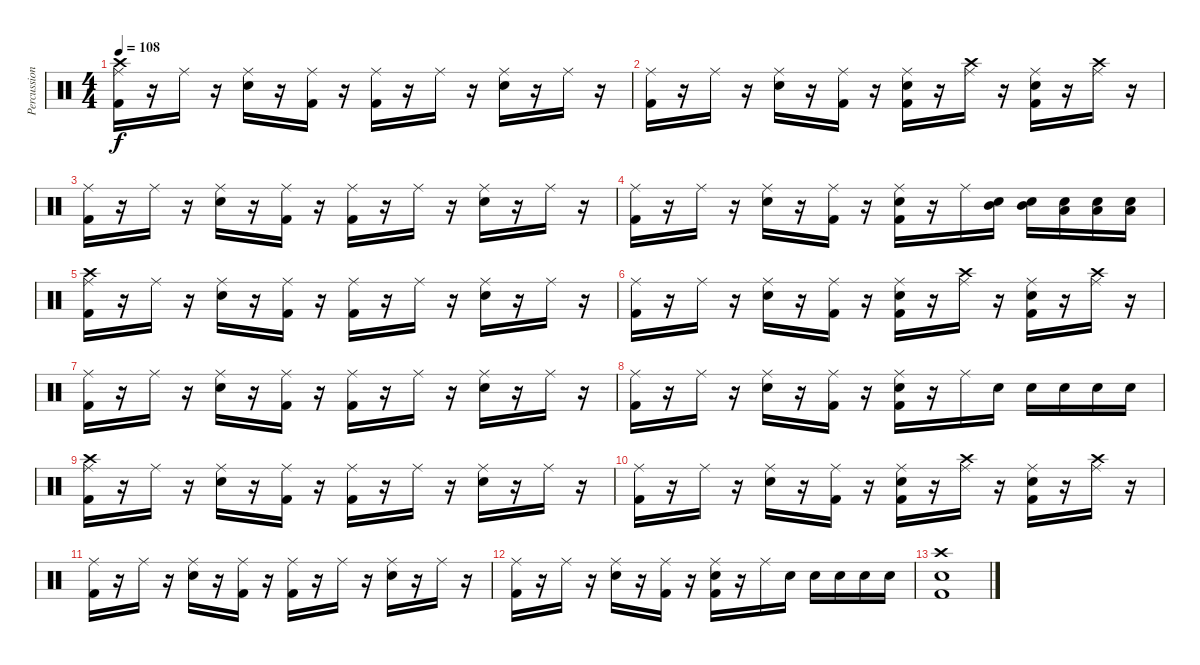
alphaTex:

\track ("Percussion" "Percussion") {instrument percussion}
\staff {score}
\articulation defaults
\ts (4 4)
\tempo 108
\clef neutral
\ks c
("Crash high (hit)" "Ride (middle)" "Kick (hit) 2").16{dy f} r.16 "Ride (middle)".16 r.16 ("Snare (hit) 2" "Ride (middle)").16 r.16 ("Ride (middle)" "Kick (hit) 2").16 r.16 ("Ride (middle)" "Kick (hit) 2").16 r.16 "Ride (middle)".16 r.16 ("Snare (hit) 2" "Ride (middle)").16 r.16 "Ride (middle)".16 r.16 |
("Ride (middle)" "Kick (hit) 2").16 r.16 "Ride (middle)".16 r.16 ("Snare (hit) 2" "Ride (middle)").16 r.16 ("Ride (middle)" "Kick (hit) 2").16 r.16 ("Snare (hit) 2" "Ride (middle)" "Kick (hit) 2").16 r.16 ("Crash high (hit)" "Ride (middle)").16 r.16 ("Snare (hit) 2" "Ride (middle)" "Kick (hit) 2").16 r.16 ("Crash high (hit)" "Ride (middle)").16 r.16 |
("Ride (middle)" "Kick (hit) 2").16 r.16 "Ride (middle)".16 r.16 ("Snare (hit) 2" "Ride (middle)").16 r.16 ("Ride (middle)" "Kick (hit) 2").16 r.16 ("Ride (middle)" "Kick (hit) 2").16 r.16 "Ride (middle)".16 r.16 ("Snare (hit) 2" "Ride (middle)").16 r.16 "Ride (middle)".16 r.16 |
("Ride (middle)" "Kick (hit) 2").16 r.16 "Ride (middle)".16 r.16 ("Snare (hit) 2" "Ride (middle)").16 r.16 ("Ride (middle)" "Kick (hit) 2").16 r.16 ("Snare (hit) 2" "Ride (middle)" "Kick (hit) 2").16 r.16 "Ride (middle)".16 ("Snare (hit) 2" "Mid Tom (hit)").16 ("Snare (hit) 2" "Mid Tom (hit)").16 ("Snare (hit) 2" "Low Tom (hit)").16 ("Snare (hit) 2" "Low Tom (hit)").16 ("Snare (hit) 2" "Low Floor Tom (hit)").16 |
("Crash high (hit)" "Ride (middle)" "Kick (hit) 2").16 r.16 "Ride (middle)".16 r.16 ("Snare (hit) 2" "Ride (middle)").16 r.16 ("Ride (middle)" "Kick (hit) 2").16 r.16 ("Ride (middle)" "Kick (hit) 2").16 r.16 "Ride (middle)".16 r.16 ("Snare (hit) 2" "Ride (middle)").16 r.16 "Ride (middle)".16 r.16 |
("Ride (middle)" "Kick (hit) 2").16 r.16 "Ride (middle)".16 r.16 ("Snare (hit) 2" "Ride (middle)").16 r.16 ("Ride (middle)" "Kick (hit) 2").16 r.16 ("Snare (hit) 2" "Ride (middle)" "Kick (hit) 2").16 r.16 ("Crash high (hit)" "Ride (middle)").16 r.16 ("Snare (hit) 2" "Ride (middle)" "Kick (hit) 2").16 r.16 ("Crash high (hit)" "Ride (middle)").16 r.16 |
("Ride (middle)" "Kick (hit) 2").16 r.16 "Ride (middle)".16 r.16 ("Snare (hit) 2" "Ride (middle)").16 r.16 ("Ride (middle)" "Kick (hit) 2").16 r.16 ("Ride (middle)" "Kick (hit) 2").16 r.16 "Ride (middle)".16 r.16 ("Snare (hit) 2" "Ride (middle)").16 r.16 "Ride (middle)".16 r.16 |
("Ride (middle)" "Kick (hit) 2").16 r.16 "Ride (middle)".16 r.16 ("Snare (hit) 2" "Ride (middle)").16 r.16 ("Ride (middle)" "Kick (hit) 2").16 r.16 ("Snare (hit) 2" "Ride (middle)" "Kick (hit) 2").16 r.16 "Ride (middle)".16 "Snare (hit) 2".16 "Snare (hit) 2".16 "Snare (hit) 2".16 "Snare (hit) 2".16 "Snare (hit) 2".16 |
("Crash high (hit)" "Ride (middle)" "Kick (hit) 2").16 r.16 "Ride (middle)".16 r.16 ("Snare (hit) 2" "Ride (middle)").16 r.16 ("Ride (middle)" "Kick (hit) 2").16 r.16 ("Ride (middle)" "Kick (hit) 2").16 r.16 "Ride (middle)".16 r.16 ("Snare (hit) 2" "Ride (middle)").16 r.16 "Ride (middle)".16 r.16 |
("Ride (middle)" "Kick (hit) 2").16 r.16 "Ride (middle)".16 r.16 ("Snare (hit) 2" "Ride (middle)").16 r.16 ("Ride (middle)" "Kick (hit) 2").16 r.16 ("Snare (hit) 2" "Ride (middle)" "Kick (hit) 2").16 r.16 ("Crash high (hit)" "Ride (middle)").16 r.16 ("Snare (hit) 2" "Ride (middle)" "Kick (hit) 2").16 r.16 ("Crash high (hit)" "Ride (middle)").16 r.16 |
("Ride (middle)" "Kick (hit) 2").16 r.16 "Ride (middle)".16 r.16 ("Snare (hit) 2" "Ride (middle)").16 r.16 ("Ride (middle)" "Kick (hit) 2").16 r.16 ("Ride (middle)" "Kick (hit) 2").16 r.16 "Ride (middle)".16 r.16 ("Snare (hit) 2" "Ride (middle)").16 r.16 "Ride (middle)".16 r.16 |
("Ride (middle)" "Kick (hit) 2").16 r.16 "Ride (middle)".16 r.16 ("Snare (hit) 2" "Ride (middle)").16 r.16 ("Ride (middle)" "Kick (hit) 2").16 r.16 ("Snare (hit) 2" "Ride (middle)" "Kick (hit) 2").16 r.16 "Ride (middle)".16 "Snare (hit) 2".16 "Snare (hit) 2".16 "Snare (hit) 2".16 "Snare (hit) 2".16 "Snare (hit) 2".16 |
("Crash high (hit)" "Snare (hit) 2" "Kick (hit) 2").1
